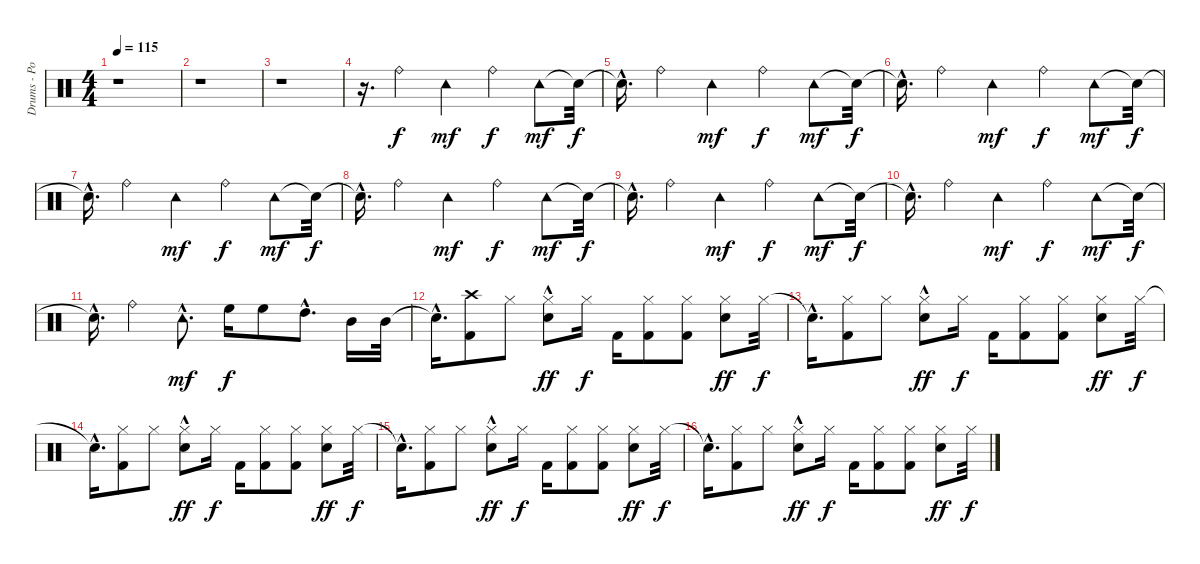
\track ("Drums - Portnoy" "Drums - Po") {instrument percussion}
\staff {score}
\articulation defaults
\ts (4 4)
\tempo 115
\clef neutral
\ks c
r.1{dy f} |
r.1 |
r.1 |
r.16{d} "Ride (bell)".4 "Tambourine (hit)".4{dy mf} "Ride (bell)".4{dy f} "Tambourine (hit)".8{dy mf} "Snare (hit)"{t}.32{dy f} |
"Snare (hit)"{hac t}.16{d} "Ride (bell)".4 "Tambourine (hit)".4{dy mf} "Ride (bell)".4{dy f} "Tambourine (hit)".8{dy mf} "Snare (hit)"{t}.32{dy f} |
"Snare (hit)"{hac t}.16{d} "Ride (bell)".4 "Tambourine (hit)".4{dy mf} "Ride (bell)".4{dy f} "Tambourine (hit)".8{dy mf} "Snare (hit)"{t}.32{dy f} |
"Snare (hit)"{hac t}.16{d} "Ride (bell)".4 "Tambourine (hit)".4{dy mf} "Ride (bell)".4{dy f} "Tambourine (hit)".8{dy mf} "Snare (hit)"{t}.32{dy f} |
"Snare (hit)"{hac t}.16{d} "Ride (bell)".4 "Tambourine (hit)".4{dy mf} "Ride (bell)".4{dy f} "Tambourine (hit)".8{dy mf} "Snare (hit)"{t}.32{dy f} |
"Snare (hit)"{hac t}.16{d} "Ride (bell)".4 "Tambourine (hit)".4{dy mf} "Ride (bell)".4{dy f} "Tambourine (hit)".8{dy mf} "Snare (hit)"{t}.32{dy f} |
"Snare (hit)"{hac t}.16{d} "Ride (bell)".4 "Tambourine (hit)".4{dy mf} "Ride (bell)".4{dy f} "Tambourine (hit)".8{dy mf} "Snare (hit)"{t}.32{dy f} |
"Snare (hit)"{hac t}.16{d} "Ride (bell)".4 "Tambourine (hit)"{hac}.8{d dy mf} "High Floor Tom (hit)".16{dy f} "High Floor Tom (hit)".8 "High Tom (hit)"{hac}.8{d} "Mid Tom (hit)".16 "Mid Tom (hit)".32 |
"Snare (hit)"{hac t}.16{d} ("Kick (hit) 2" "Crash high (hit)").8 "Hi-Hat (closed)".8 ("Hi-Hat (closed)" "Electric Snare (hit)"{hac}).8{dy ff} "Hi-Hat (closed)".16{dy f} "Kick (hit) 2".16 ("Kick (hit) 2" "Hi-Hat (closed)").8 ("Kick (hit) 2" "Hi-Hat (closed)").8 ("Hi-Hat (closed)" "Electric Snare (hit)").8{dy ff} "Hi-Hat (closed)".32{dy f} |
"Snare (hit)"{hac t}.16{d} ("Kick (hit) 2" "Hi-Hat (closed)").8 "Hi-Hat (closed)".8 ("Hi-Hat (closed)" "Electric Snare (hit)"{hac}).8{dy ff} "Hi-Hat (closed)".16{dy f} "Kick (hit) 2".16 ("Kick (hit) 2" "Hi-Hat (closed)").8 ("Kick (hit) 2" "Hi-Hat (closed)").8 ("Hi-Hat (closed)" "Electric Snare (hit)").8{dy ff} "Hi-Hat (closed)".32{dy f} |
"Snare (hit)"{hac t}.16{d} ("Hi-Hat (closed)" "Kick (hit) 2").8 "Hi-Hat (closed)".8 ("Hi-Hat (closed)" "Electric Snare (hit)"{hac}).8{dy ff} "Hi-Hat (closed)".16{dy f} "Kick (hit) 2".16 ("Kick (hit) 2" "Hi-Hat (closed)").8 ("Kick (hit) 2" "Hi-Hat (closed)").8 ("Hi-Hat (closed)" "Electric Snare (hit)").8{dy ff} "Hi-Hat (closed)".32{dy f} |
"Snare (hit)"{hac t}.16{d} ("Hi-Hat (closed)" "Kick (hit) 2").8 "Hi-Hat (closed)".8 ("Hi-Hat (closed)" "Electric Snare (hit)"{hac}).8{dy ff} "Hi-Hat (closed)".16{dy f} "Kick (hit) 2".16 ("Kick (hit) 2" "Hi-Hat (closed)").8 ("Kick (hit) 2" "Hi-Hat (closed)").8 ("Hi-Hat (closed)" "Electric Snare (hit)").8{dy ff} "Hi-Hat (closed)".32{dy f} |
"Snare (hit)"{hac t}.16{d} ("Kick (hit) 2" "Hi-Hat (closed)").8 "Hi-Hat (closed)".8 ("Hi-Hat (closed)" "Electric Snare (hit)"{hac}).8{dy ff} "Hi-Hat (closed)".16{dy f} "Kick (hit) 2".16 ("Kick (hit) 2" "Hi-Hat (closed)").8 ("Kick (hit) 2" "Hi-Hat (closed)").8 ("Hi-Hat (closed)" "Electric Snare (hit)").8{dy ff} "Hi-Hat (closed)".32{dy f}
